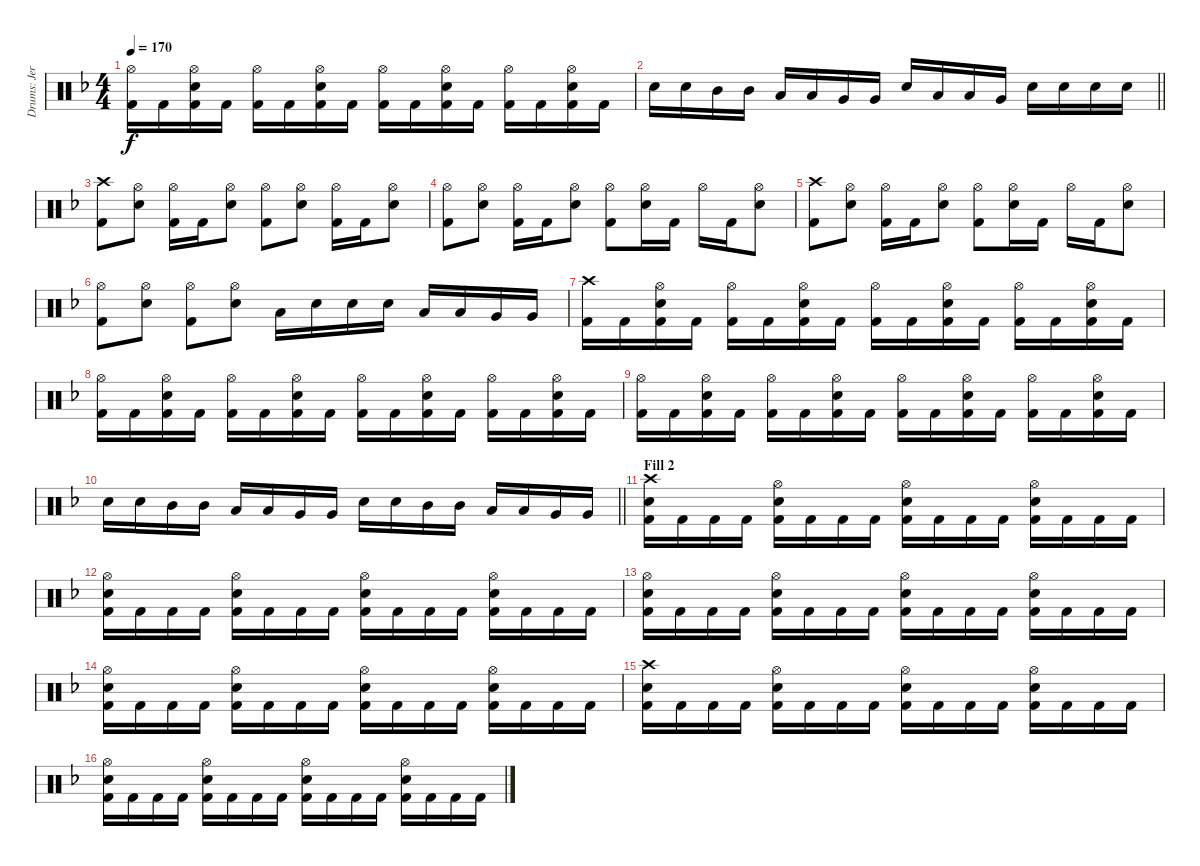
\track ("Drums: Jere Luokkamäki" "Drums: Jer") {instrument percussion}
\staff {score}
\articulation defaults
\ts (4 4)
\tempo 170
\clef neutral
\ks dminor
("Hi-Hat (open)" "Kick (hit) 2").16{dy f} "Kick (hit) 2".16 ("Hi-Hat (open)" "Electric Snare (hit)" "Kick (hit) 2").16 "Kick (hit) 2".16 ("Hi-Hat (open)" "Kick (hit) 2").16 "Kick (hit) 2".16 ("Hi-Hat (open)" "Electric Snare (hit)" "Kick (hit) 2").16 "Kick (hit) 2".16 ("Hi-Hat (open)" "Kick (hit) 2").16 "Kick (hit) 2".16 ("Hi-Hat (open)" "Electric Snare (hit)" "Kick (hit) 2").16 "Kick (hit) 2".16 ("Hi-Hat (open)" "Kick (hit) 2").16 "Kick (hit) 2".16 ("Hi-Hat (open)" "Electric Snare (hit)" "Kick (hit) 2").16 "Kick (hit) 2".16 |
\barLineRight lightlight "Electric Snare (hit)".16 "Electric Snare (hit)".16 "Mid Tom (hit)".16 "Mid Tom (hit)".16 "Low Tom (hit)".16 "Low Tom (hit)".16 "Very Low Tom (hit)".16 "Very Low Tom (hit)".16 "Electric Snare (hit)".16 "Low Tom (hit)".16 "Low Tom (hit)".16 "Very Low Tom (hit)".16 "Electric Snare (hit)".16 "Electric Snare (hit)".16 "Electric Snare (hit)".16 "Electric Snare (hit)".16
|
("Crash high (hit)" "Kick (hit) 2").8 ("Hi-Hat (open)" "Electric Snare (hit)").8 ("Hi-Hat (open)" "Kick (hit) 2").16 "Kick (hit) 2".16 ("Hi-Hat (open)" "Electric Snare (hit)").8 ("Hi-Hat (open)" "Kick (hit) 2").8 ("Hi-Hat (open)" "Electric Snare (hit)").8 ("Hi-Hat (open)" "Kick (hit) 2").16 "Kick (hit) 2".16 ("Hi-Hat (open)" "Electric Snare (hit)").8 |
("Hi-Hat (open)" "Kick (hit) 2").8 ("Hi-Hat (open)" "Electric Snare (hit)").8 ("Hi-Hat (open)" "Kick (hit) 2").16 "Kick (hit) 2".16 ("Hi-Hat (open)" "Electric Snare (hit)").8 ("Hi-Hat (open)" "Kick (hit) 2").8 ("Hi-Hat (open)" "Electric Snare (hit)").16 "Kick (hit) 2".16 "Hi-Hat (open)".16 "Kick (hit) 2".16 ("Hi-Hat (open)" "Electric Snare (hit)").8 |
("Crash high (hit)" "Kick (hit) 2").8 ("Hi-Hat (open)" "Electric Snare (hit)").8 ("Hi-Hat (open)" "Kick (hit) 2").16 "Kick (hit) 2".16 ("Hi-Hat (open)" "Electric Snare (hit)").8 ("Hi-Hat (open)" "Kick (hit) 2").8 ("Hi-Hat (open)" "Electric Snare (hit)").16 "Kick (hit) 2".16 "Hi-Hat (open)".16 "Kick (hit) 2".16 ("Hi-Hat (open)" "Electric Snare (hit)").8 |
("Hi-Hat (open)" "Kick (hit) 2").8 ("Hi-Hat (open)" "Electric Snare (hit)").8 ("Hi-Hat (open)" "Kick (hit) 2").8 ("Hi-Hat (open)" "Electric Snare (hit)").8 "Low Tom (hit)".16 "Electric Snare (hit)".16 "Electric Snare (hit)".16 "Electric Snare (hit)".16 "Low Tom (hit)".16 "Low Tom (hit)".16 "Very Low Tom (hit)".16 "Very Low Tom (hit)".16 |
("Crash high (hit)" "Kick (hit) 2").16 "Kick (hit) 2".16 ("Hi-Hat (open)" "Electric Snare (hit)" "Kick (hit) 2").16 "Kick (hit) 2".16 ("Hi-Hat (open)" "Kick (hit) 2").16 "Kick (hit) 2".16 ("Hi-Hat (open)" "Electric Snare (hit)" "Kick (hit) 2").16 "Kick (hit) 2".16 ("Hi-Hat (open)" "Kick (hit) 2").16 "Kick (hit) 2".16 ("Hi-Hat (open)" "Electric Snare (hit)" "Kick (hit) 2").16 "Kick (hit) 2".16 ("Hi-Hat (open)" "Kick (hit) 2").16 "Kick (hit) 2".16 ("Hi-Hat (open)" "Electric Snare (hit)" "Kick (hit) 2").16 "Kick (hit) 2".16 |
("Hi-Hat (open)" "Kick (hit) 2").16 "Kick (hit) 2".16 ("Hi-Hat (open)" "Electric Snare (hit)" "Kick (hit) 2").16 "Kick (hit) 2".16 ("Hi-Hat (open)" "Kick (hit) 2").16 "Kick (hit) 2".16 ("Hi-Hat (open)" "Electric Snare (hit)" "Kick (hit) 2").16 "Kick (hit) 2".16 ("Hi-Hat (open)" "Kick (hit) 2").16 "Kick (hit) 2".16 ("Hi-Hat (open)" "Electric Snare (hit)" "Kick (hit) 2").16 "Kick (hit) 2".16 ("Hi-Hat (open)" "Kick (hit) 2").16 "Kick (hit) 2".16 ("Hi-Hat (open)" "Electric Snare (hit)" "Kick (hit) 2").16 "Kick (hit) 2".16 |
("Hi-Hat (open)" "Kick (hit) 2").16 "Kick (hit) 2".16 ("Hi-Hat (open)" "Electric Snare (hit)" "Kick (hit) 2").16 "Kick (hit) 2".16 ("Hi-Hat (open)" "Kick (hit) 2").16 "Kick (hit) 2".16 ("Hi-Hat (open)" "Electric Snare (hit)" "Kick (hit) 2").16 "Kick (hit) 2".16 ("Hi-Hat (open)" "Kick (hit) 2").16 "Kick (hit) 2".16 ("Hi-Hat (open)" "Electric Snare (hit)" "Kick (hit) 2").16 "Kick (hit) 2".16 ("Hi-Hat (open)" "Kick (hit) 2").16 "Kick (hit) 2".16 ("Hi-Hat (open)" "Electric Snare (hit)" "Kick (hit) 2").16 "Kick (hit) 2".16 |
\barLineRight lightlight "Electric Snare (hit)".16 "Electric Snare (hit)".16 "Mid Tom (hit)".16 "Mid Tom (hit)".16 "Low Tom (hit)".16 "Low Tom (hit)".16 "Very Low Tom (hit)".16 "Very Low Tom (hit)".16 "Electric Snare (hit)".16 "Electric Snare (hit)".16 "Mid Tom (hit)".16 "Mid Tom (hit)".16 "Low Tom (hit)".16 "Low Tom (hit)".16 "Very Low Tom (hit)".16 "Very Low Tom (hit)".16
|
\section ("" "Fill 2")
("Crash high (hit)" "Electric Snare (hit)" "Kick (hit) 2").16 "Kick (hit) 2".16 "Kick (hit) 2".16 "Kick (hit) 2".16 ("Hi-Hat (open)" "Electric Snare (hit)" "Kick (hit) 2").16 "Kick (hit) 2".16 "Kick (hit) 2".16 "Kick (hit) 2".16 ("Hi-Hat (open)" "Electric Snare (hit)" "Kick (hit) 2").16 "Kick (hit) 2".16 "Kick (hit) 2".16 "Kick (hit) 2".16 ("Hi-Hat (open)" "Electric Snare (hit)" "Kick (hit) 2").16 "Kick (hit) 2".16 "Kick (hit) 2".16 "Kick (hit) 2".16 |
("Hi-Hat (open)" "Electric Snare (hit)" "Kick (hit) 2").16 "Kick (hit) 2".16 "Kick (hit) 2".16 "Kick (hit) 2".16 ("Hi-Hat (open)" "Electric Snare (hit)" "Kick (hit) 2").16 "Kick (hit) 2".16 "Kick (hit) 2".16 "Kick (hit) 2".16 ("Hi-Hat (open)" "Electric Snare (hit)" "Kick (hit) 2").16 "Kick (hit) 2".16 "Kick (hit) 2".16 "Kick (hit) 2".16 ("Hi-Hat (open)" "Electric Snare (hit)" "Kick (hit) 2").16 "Kick (hit) 2".16 "Kick (hit) 2".16 "Kick (hit) 2".16 |
("Hi-Hat (open)" "Electric Snare (hit)" "Kick (hit) 2").16 "Kick (hit) 2".16 "Kick (hit) 2".16 "Kick (hit) 2".16 ("Hi-Hat (open)" "Electric Snare (hit)" "Kick (hit) 2").16 "Kick (hit) 2".16 "Kick (hit) 2".16 "Kick (hit) 2".16 ("Hi-Hat (open)" "Electric Snare (hit)" "Kick (hit) 2").16 "Kick (hit) 2".16 "Kick (hit) 2".16 "Kick (hit) 2".16 ("Hi-Hat (open)" "Electric Snare (hit)" "Kick (hit) 2").16 "Kick (hit) 2".16 "Kick (hit) 2".16 "Kick (hit) 2".16 |
("Hi-Hat (open)" "Electric Snare (hit)" "Kick (hit) 2").16 "Kick (hit) 2".16 "Kick (hit) 2".16 "Kick (hit) 2".16 ("Hi-Hat (open)" "Electric Snare (hit)" "Kick (hit) 2").16 "Kick (hit) 2".16 "Kick (hit) 2".16 "Kick (hit) 2".16 ("Hi-Hat (open)" "Electric Snare (hit)" "Kick (hit) 2").16 "Kick (hit) 2".16 "Kick (hit) 2".16 "Kick (hit) 2".16 ("Hi-Hat (open)" "Electric Snare (hit)" "Kick (hit) 2").16 "Kick (hit) 2".16 "Kick (hit) 2".16 "Kick (hit) 2".16 |
("Crash high (hit)" "Electric Snare (hit)" "Kick (hit) 2").16 "Kick (hit) 2".16 "Kick (hit) 2".16 "Kick (hit) 2".16 ("Hi-Hat (open)" "Electric Snare (hit)" "Kick (hit) 2").16 "Kick (hit) 2".16 "Kick (hit) 2".16 "Kick (hit) 2".16 ("Hi-Hat (open)" "Electric Snare (hit)" "Kick (hit) 2").16 "Kick (hit) 2".16 "Kick (hit) 2".16 "Kick (hit) 2".16 ("Hi-Hat (open)" "Electric Snare (hit)" "Kick (hit) 2").16 "Kick (hit) 2".16 "Kick (hit) 2".16 "Kick (hit) 2".16 |
("Hi-Hat (open)" "Electric Snare (hit)" "Kick (hit) 2").16 "Kick (hit) 2".16 "Kick (hit) 2".16 "Kick (hit) 2".16 ("Hi-Hat (open)" "Electric Snare (hit)" "Kick (hit) 2").16 "Kick (hit) 2".16 "Kick (hit) 2".16 "Kick (hit) 2".16 ("Hi-Hat (open)" "Electric Snare (hit)" "Kick (hit) 2").16 "Kick (hit) 2".16 "Kick (hit) 2".16 "Kick (hit) 2".16 ("Hi-Hat (open)" "Electric Snare (hit)" "Kick (hit) 2").16 "Kick (hit) 2".16 "Kick (hit) 2".16 "Kick (hit) 2".16
